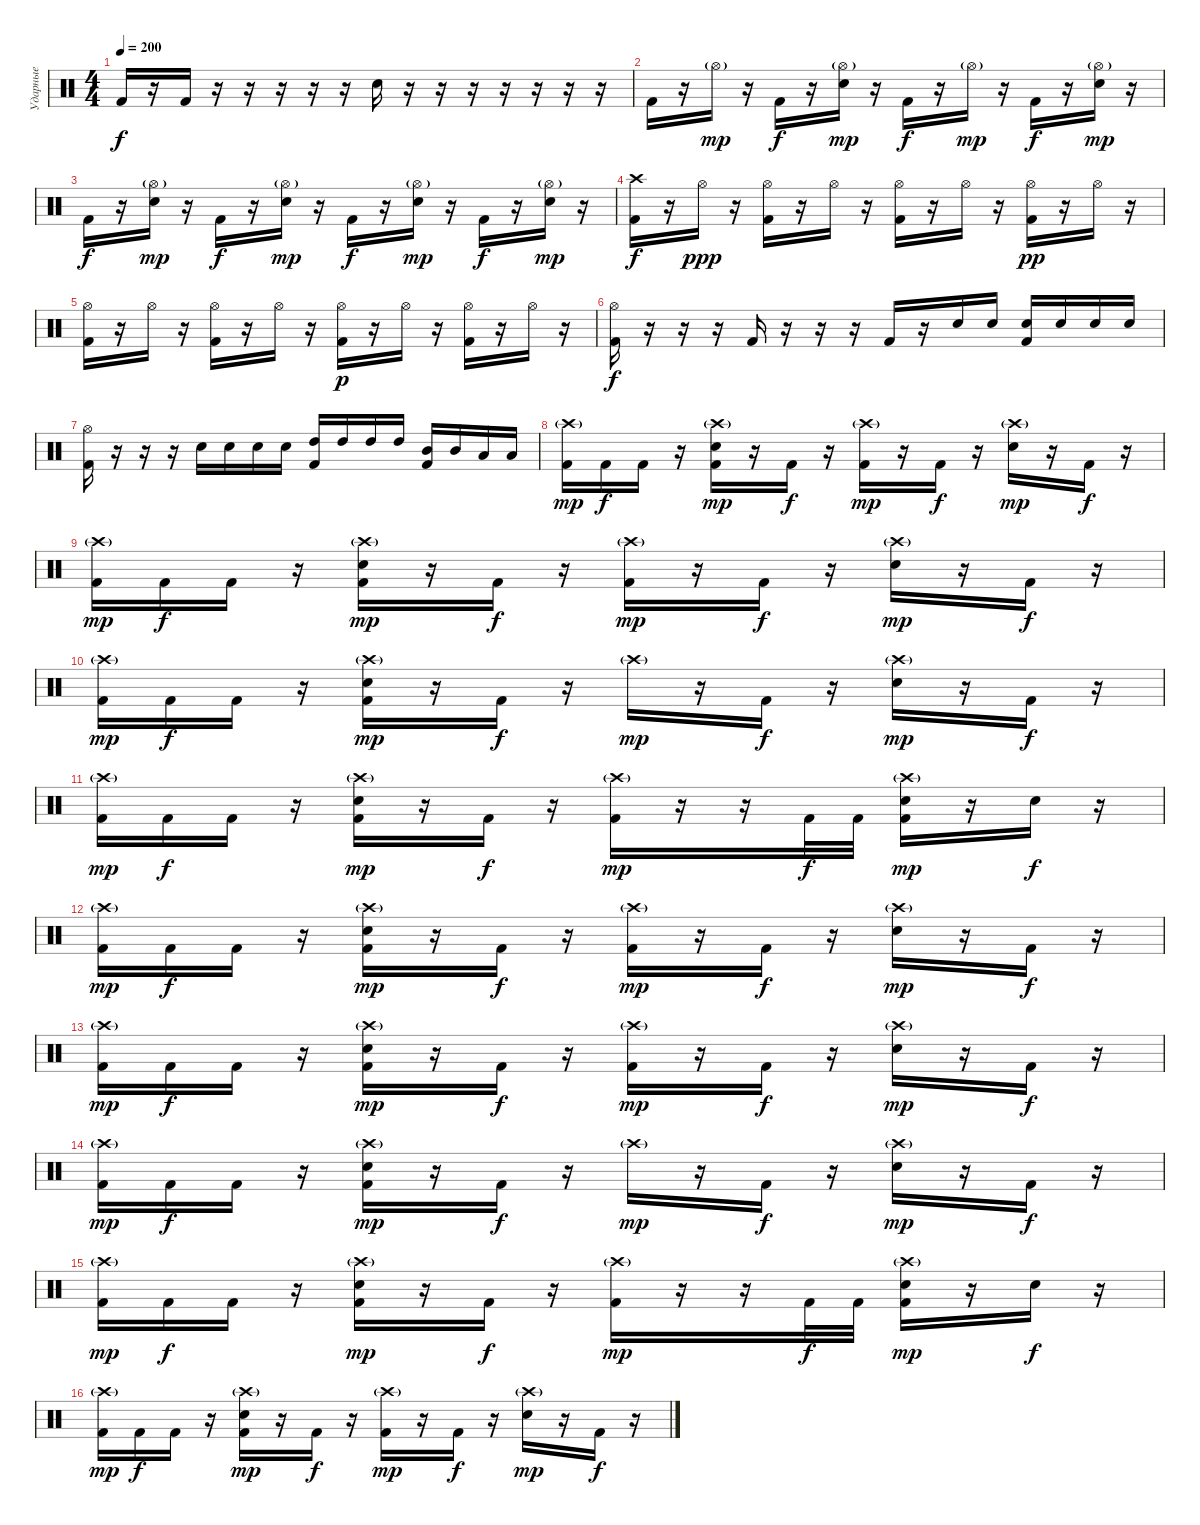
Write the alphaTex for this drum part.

\track ("Ударные" "Ударные") {instrument percussion bank 101}
\staff {score}
\articulation defaults
\ts (4 4)
\tempo 200
\clef neutral
\ks c "Kick (hit) 2".16{dy f}
r.16 "Kick (hit) 2".16 r.16 r.16 r.16 r.16 r.16 "Electric Snare (hit)".16 r.16 r.16 r.16 r.16 r.16 r.16 r.16 |
"Kick (hit) 2".16 r.16 "Hi-Hat (open)"{g}.16{dy mp} r.16 "Kick (hit) 2".16{dy f} r.16 ("Hi-Hat (open)"{g} "Electric Snare (hit)").16{dy mp} r.16 "Kick (hit) 2".16{dy f} r.16 "Hi-Hat (open)"{g}.16{dy mp} r.16 "Kick (hit) 2".16{dy f} r.16 ("Hi-Hat (open)"{g} "Electric Snare (hit)").16{dy mp} r.16 |
"Kick (hit) 2".16{dy f} r.16 ("Hi-Hat (open)"{g} "Electric Snare (hit)").16{dy mp} r.16 "Kick (hit) 2".16{dy f} r.16 ("Hi-Hat (open)"{g} "Electric Snare (hit)").16{dy mp} r.16 "Kick (hit) 2".16{dy f} r.16 ("Hi-Hat (open)"{g} "Electric Snare (hit)").16{dy mp} r.16 "Kick (hit) 2".16{dy f} r.16 ("Hi-Hat (open)"{g} "Electric Snare (hit)").16{dy mp} r.16 |
("Crash high (hit)" "Kick (hit) 2").16{dy f} r.16 "Hi-Hat (open)".16{dy ppp} r.16 ("Hi-Hat (open)" "Kick (hit) 2").16 r.16 "Hi-Hat (open)".16 r.16 ("Hi-Hat (open)" "Kick (hit) 2").16 r.16 "Hi-Hat (open)".16 r.16 ("Hi-Hat (open)" "Kick (hit) 2").16{dy pp} r.16 "Hi-Hat (open)".16 r.16 |
("Hi-Hat (open)" "Kick (hit) 2").16 r.16 "Hi-Hat (open)".16 r.16 ("Hi-Hat (open)" "Kick (hit) 2").16 r.16 "Hi-Hat (open)".16 r.16 ("Hi-Hat (open)" "Kick (hit) 2").16{dy p} r.16 "Hi-Hat (open)".16 r.16 ("Hi-Hat (open)" "Kick (hit) 2").16 r.16 "Hi-Hat (open)".16 r.16 |
("Hi-Hat (open)" "Kick (hit) 2").16{dy f} r.16 r.16 r.16 "Kick (hit) 2".16 r.16 r.16 r.16 "Kick (hit) 2".16 r.16 "Electric Snare (hit)".16 "Electric Snare (hit)".16 ("Electric Snare (hit)" "Kick (hit) 2").16 "Electric Snare (hit)".16 "Electric Snare (hit)".16 "Electric Snare (hit)".16 |
("Hi-Hat (open)" "Kick (hit) 2").16 r.16 r.16 r.16 "Electric Snare (hit)".16 "Electric Snare (hit)".16 "Electric Snare (hit)".16 "Electric Snare (hit)".16 ("High Tom (hit)" "Kick (hit) 2").16 "High Tom (hit)".16 "High Tom (hit)".16 "High Tom (hit)".16 ("Mid Tom (hit)" "Kick (hit) 2").16 "Mid Tom (hit)".16 "Low Tom (hit)".16 "Low Tom (hit)".16 |
("Crash high (hit)"{g} "Kick (hit) 2").16{dy mp} "Kick (hit) 2".16{dy f} "Kick (hit) 2".16 r.16 ("Crash high (hit)"{g} "Electric Snare (hit)" "Kick (hit) 2").16{dy mp} r.16 "Kick (hit) 2".16{dy f} r.16 ("Crash high (hit)"{g} "Kick (hit) 2").16{dy mp} r.16 "Kick (hit) 2".16{dy f} r.16 ("Crash high (hit)"{g} "Electric Snare (hit)").16{dy mp} r.16 "Kick (hit) 2".16{dy f} r.16 |
("Crash high (hit)"{g} "Kick (hit) 2").16{dy mp} "Kick (hit) 2".16{dy f} "Kick (hit) 2".16 r.16 ("Crash high (hit)"{g} "Electric Snare (hit)" "Kick (hit) 2").16{dy mp} r.16 "Kick (hit) 2".16{dy f} r.16 ("Crash high (hit)"{g} "Kick (hit) 2").16{dy mp} r.16 "Kick (hit) 2".16{dy f} r.16 ("Crash high (hit)"{g} "Electric Snare (hit)").16{dy mp} r.16 "Kick (hit) 2".16{dy f} r.16 |
("Crash high (hit)"{g} "Kick (hit) 2").16{dy mp} "Kick (hit) 2".16{dy f} "Kick (hit) 2".16 r.16 ("Crash high (hit)"{g} "Electric Snare (hit)" "Kick (hit) 2").16{dy mp} r.16 "Kick (hit) 2".16{dy f} r.16 "Crash high (hit)"{g}.16{dy mp} r.16 "Kick (hit) 2".16{dy f} r.16 ("Crash high (hit)"{g} "Electric Snare (hit)").16{dy mp} r.16 "Kick (hit) 2".16{dy f} r.16 |
("Crash high (hit)"{g} "Kick (hit) 2").16{dy mp} "Kick (hit) 2".16{dy f} "Kick (hit) 2".16 r.16 ("Crash high (hit)"{g} "Electric Snare (hit)" "Kick (hit) 2").16{dy mp} r.16 "Kick (hit) 2".16{dy f} r.16 ("Crash high (hit)"{g} "Kick (hit) 2").16{dy mp} r.16 r.16 "Kick (hit) 2".32{dy f} "Kick (hit) 2".32 ("Crash high (hit)"{g} "Electric Snare (hit)" "Kick (hit) 2").16{dy mp} r.16 "Electric Snare (hit)".16{dy f} r.16 |
("Crash high (hit)"{g} "Kick (hit) 2").16{dy mp} "Kick (hit) 2".16{dy f} "Kick (hit) 2".16 r.16 ("Crash high (hit)"{g} "Electric Snare (hit)" "Kick (hit) 2").16{dy mp} r.16 "Kick (hit) 2".16{dy f} r.16 ("Crash high (hit)"{g} "Kick (hit) 2").16{dy mp} r.16 "Kick (hit) 2".16{dy f} r.16 ("Crash high (hit)"{g} "Electric Snare (hit)").16{dy mp} r.16 "Kick (hit) 2".16{dy f} r.16 |
("Crash high (hit)"{g} "Kick (hit) 2").16{dy mp} "Kick (hit) 2".16{dy f} "Kick (hit) 2".16 r.16 ("Crash high (hit)"{g} "Electric Snare (hit)" "Kick (hit) 2").16{dy mp} r.16 "Kick (hit) 2".16{dy f} r.16 ("Crash high (hit)"{g} "Kick (hit) 2").16{dy mp} r.16 "Kick (hit) 2".16{dy f} r.16 ("Crash high (hit)"{g} "Electric Snare (hit)").16{dy mp} r.16 "Kick (hit) 2".16{dy f} r.16 |
("Crash high (hit)"{g} "Kick (hit) 2").16{dy mp} "Kick (hit) 2".16{dy f} "Kick (hit) 2".16 r.16 ("Crash high (hit)"{g} "Electric Snare (hit)" "Kick (hit) 2").16{dy mp} r.16 "Kick (hit) 2".16{dy f} r.16 "Crash high (hit)"{g}.16{dy mp} r.16 "Kick (hit) 2".16{dy f} r.16 ("Crash high (hit)"{g} "Electric Snare (hit)").16{dy mp} r.16 "Kick (hit) 2".16{dy f} r.16 |
("Crash high (hit)"{g} "Kick (hit) 2").16{dy mp} "Kick (hit) 2".16{dy f} "Kick (hit) 2".16 r.16 ("Crash high (hit)"{g} "Electric Snare (hit)" "Kick (hit) 2").16{dy mp} r.16 "Kick (hit) 2".16{dy f} r.16 ("Crash high (hit)"{g} "Kick (hit) 2").16{dy mp} r.16 r.16 "Kick (hit) 2".32{dy f} "Kick (hit) 2".32 ("Crash high (hit)"{g} "Electric Snare (hit)" "Kick (hit) 2").16{dy mp} r.16 "Electric Snare (hit)".16{dy f} r.16 |
("Crash high (hit)"{g} "Kick (hit) 2").16{dy mp} "Kick (hit) 2".16{dy f} "Kick (hit) 2".16 r.16 ("Crash high (hit)"{g} "Electric Snare (hit)" "Kick (hit) 2").16{dy mp} r.16 "Kick (hit) 2".16{dy f} r.16 ("Crash high (hit)"{g} "Kick (hit) 2").16{dy mp} r.16 "Kick (hit) 2".16{dy f} r.16 ("Crash high (hit)"{g} "Electric Snare (hit)").16{dy mp} r.16 "Kick (hit) 2".16{dy f} r.16
